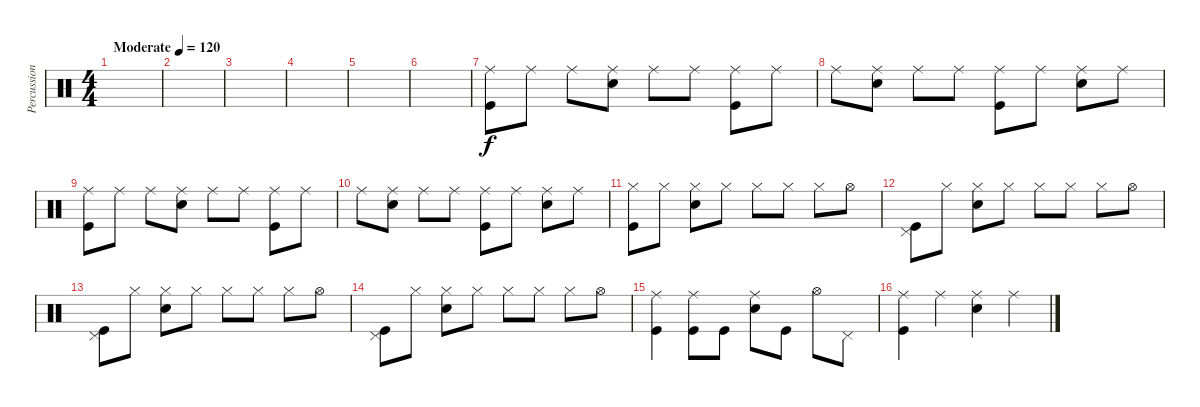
\track ("Percussion" "Percussion") {instrument percussion}
\staff {score}
\articulation defaults
\ts (4 4)
\tempo (120 "Moderate")
\clef neutral
\ks c
|
|
|
|
|
|
("Ride (middle)" "Kick (hit)").8 "Ride (middle)".8 "Ride (middle)".8 ("Ride (middle)" "Snare (hit) 2").8 "Ride (middle)".8 "Ride (middle)".8 ("Ride (middle)" "Kick (hit)").8 "Ride (middle)".8 |
"Ride (middle)".8 ("Ride (middle)" "Snare (hit) 2").8 "Ride (middle)".8 "Ride (middle)".8 ("Ride (middle)" "Kick (hit)").8 "Ride (middle)".8 ("Ride (middle)" "Snare (hit) 2").8 "Ride (middle)".8 |
("Ride (middle)" "Kick (hit)").8 "Ride (middle)".8 "Ride (middle)".8 ("Ride (middle)" "Snare (hit) 2").8 "Ride (middle)".8 "Ride (middle)".8 ("Ride (middle)" "Kick (hit)").8 "Ride (middle)".8 |
"Ride (middle)".8 ("Ride (middle)" "Snare (hit) 2").8 "Ride (middle)".8 "Ride (middle)".8 ("Ride (middle)" "Kick (hit)").8 "Ride (middle)".8 ("Ride (middle)" "Snare (hit) 2").8 "Ride (middle)".8 |
("Hi-Hat (closed)" "Kick (hit)").8 "Hi-Hat (closed)".8 ("Hi-Hat (closed)" "Snare (hit) 2").8 "Hi-Hat (closed)".8 "Hi-Hat (closed)".8 "Hi-Hat (closed)".8 "Hi-Hat (closed)".8 "Hi-Hat (open)".8 |
("Pedal Hi-Hat (hit)" "Kick (hit)").8 "Hi-Hat (closed)".8 ("Hi-Hat (closed)" "Snare (hit) 2").8 "Hi-Hat (closed)".8 "Hi-Hat (closed)".8 "Hi-Hat (closed)".8 "Hi-Hat (closed)".8 "Hi-Hat (open)".8 |
("Pedal Hi-Hat (hit)" "Kick (hit)").8 "Hi-Hat (closed)".8 ("Hi-Hat (closed)" "Snare (hit) 2").8 "Hi-Hat (closed)".8 "Hi-Hat (closed)".8 "Hi-Hat (closed)".8 "Hi-Hat (closed)".8 "Hi-Hat (open)".8 |
("Pedal Hi-Hat (hit)" "Kick (hit)").8 "Hi-Hat (closed)".8 ("Hi-Hat (closed)" "Snare (hit) 2").8 "Hi-Hat (closed)".8 "Hi-Hat (closed)".8 "Hi-Hat (closed)".8 "Hi-Hat (closed)".8 "Hi-Hat (open)".8 |
("Ride (middle)" "Kick (hit)").4 ("Ride (middle)" "Kick (hit)").8 "Kick (hit)".8 ("Ride (middle)" "Snare (hit) 2").8 "Kick (hit)".8 "Hi-Hat (open)".8 "Pedal Hi-Hat (hit)".8 |
("Ride (middle)" "Kick (hit)").4 "Ride (middle)".4 ("Ride (middle)" "Snare (hit) 2").4 "Ride (middle)".4
